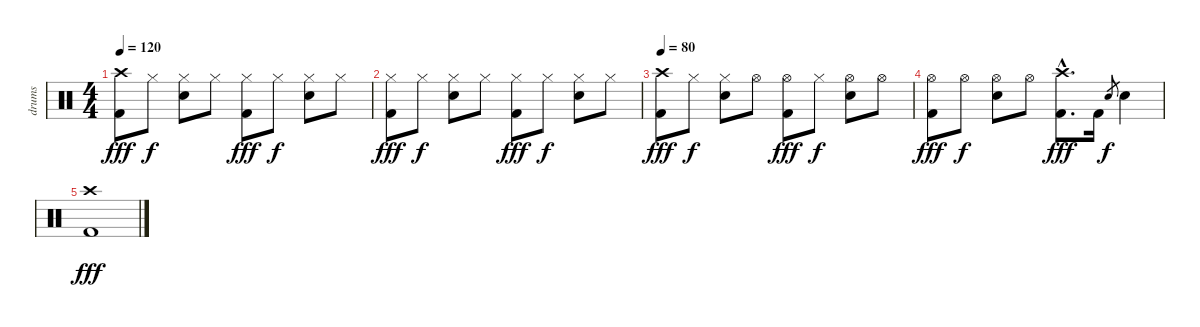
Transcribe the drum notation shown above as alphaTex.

\track ("drums" "drums") {instrument percussion}
\staff {score}
\articulation defaults
\ts (4 4)
\tempo 120
\clef neutral
\ks c
("Crash high (hit)" "Kick (hit) 2").8{dy fff} "Hi-Hat (closed)".8{dy f} ("Hi-Hat (closed)" "Snare (hit) 2").8 "Hi-Hat (closed)".8 ("Hi-Hat (closed)" "Kick (hit) 2").8{dy fff} "Hi-Hat (closed)".8{dy f} ("Hi-Hat (closed)" "Snare (hit) 2").8 "Hi-Hat (closed)".8 |
("Hi-Hat (closed)" "Kick (hit) 2").8{dy fff} "Hi-Hat (closed)".8{dy f} ("Hi-Hat (closed)" "Snare (hit) 2").8 "Hi-Hat (closed)".8 ("Hi-Hat (closed)" "Kick (hit) 2").8{dy fff} "Hi-Hat (closed)".8{dy f} ("Hi-Hat (closed)" "Snare (hit) 2").8 "Hi-Hat (closed)".8 |
\tempo 80
("Crash high (hit)" "Kick (hit) 2").8{dy fff} "Hi-Hat (closed)".8{dy f} ("Hi-Hat (closed)" "Snare (hit) 2").8 "Hi-Hat (open)".8 ("Hi-Hat (open)" "Kick (hit) 2").8{dy fff} "Hi-Hat (closed)".8{dy f} ("Hi-Hat (open)" "Snare (hit) 2").8 "Hi-Hat (open)".8 |
("Hi-Hat (open)" "Kick (hit) 2").8{dy fff} "Hi-Hat (open)".8{dy f} ("Hi-Hat (open)" "Snare (hit) 2").8 "Hi-Hat (open)".8 ("Crash high (hit)"{hac} "Kick (hit) 2"{hac}).8{d dy fff} "Kick (hit) 2".16 "Snare (hit) 2".8{gr dy f} "Snare (hit) 2".4 |
("Crash high (hit)" "Kick (hit) 2").1{dy fff}
